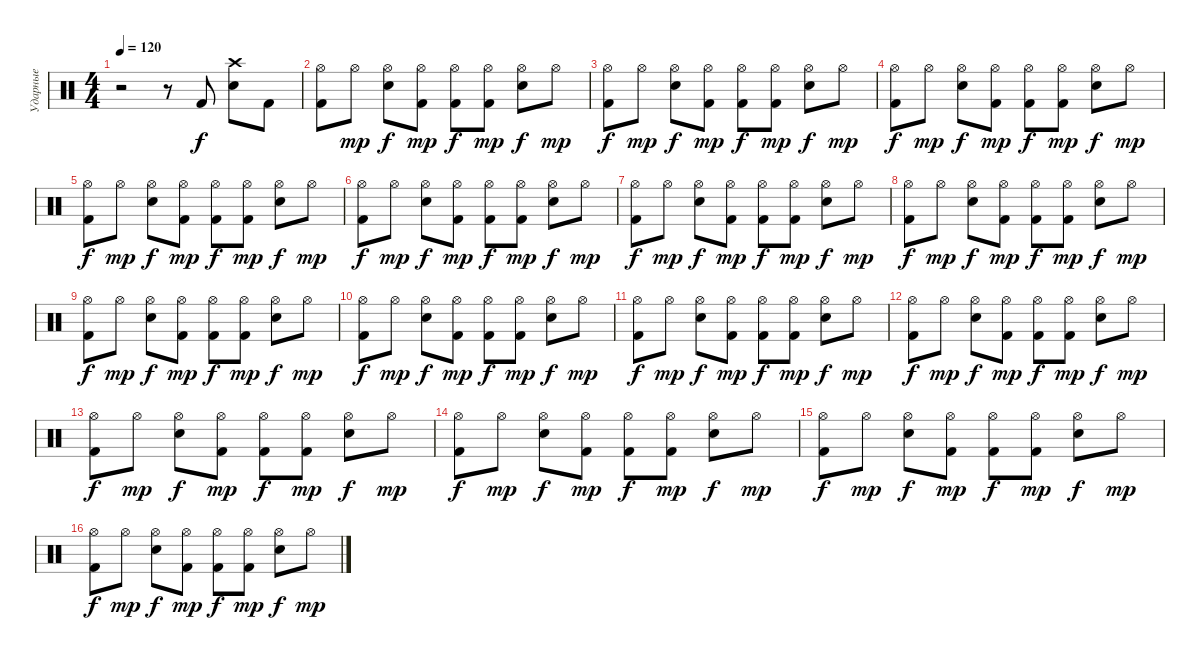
\track ("Ударные" "Ударные") {instrument percussion}
\staff {score}
\articulation defaults
\ts (4 4)
\tempo 120
\clef neutral
\ks c
r.2{dy f} r.8 "Kick (hit) 2".8 ("Crash high (hit)" "Snare (hit) 2").8 "Kick (hit) 2".8 |
("Hi-Hat (open)" "Kick (hit) 2").8 "Hi-Hat (open)".8{dy mp} ("Hi-Hat (open)" "Snare (hit) 2").8{dy f} ("Hi-Hat (open)" "Kick (hit) 2").8{dy mp} ("Hi-Hat (open)" "Kick (hit) 2").8{dy f} ("Hi-Hat (open)" "Kick (hit) 2").8{dy mp} ("Hi-Hat (open)" "Snare (hit) 2").8{dy f} "Hi-Hat (open)".8{dy mp} |
("Hi-Hat (open)" "Kick (hit) 2").8{dy f} "Hi-Hat (open)".8{dy mp} ("Hi-Hat (open)" "Snare (hit) 2").8{dy f} ("Hi-Hat (open)" "Kick (hit) 2").8{dy mp} ("Hi-Hat (open)" "Kick (hit) 2").8{dy f} ("Hi-Hat (open)" "Kick (hit) 2").8{dy mp} ("Hi-Hat (open)" "Snare (hit) 2").8{dy f} "Hi-Hat (open)".8{dy mp} |
("Hi-Hat (open)" "Kick (hit) 2").8{dy f} "Hi-Hat (open)".8{dy mp} ("Hi-Hat (open)" "Snare (hit) 2").8{dy f} ("Hi-Hat (open)" "Kick (hit) 2").8{dy mp} ("Hi-Hat (open)" "Kick (hit) 2").8{dy f} ("Hi-Hat (open)" "Kick (hit) 2").8{dy mp} ("Hi-Hat (open)" "Snare (hit) 2").8{dy f} "Hi-Hat (open)".8{dy mp} |
("Hi-Hat (open)" "Kick (hit) 2").8{dy f} "Hi-Hat (open)".8{dy mp} ("Hi-Hat (open)" "Snare (hit) 2").8{dy f} ("Hi-Hat (open)" "Kick (hit) 2").8{dy mp} ("Hi-Hat (open)" "Kick (hit) 2").8{dy f} ("Hi-Hat (open)" "Kick (hit) 2").8{dy mp} ("Hi-Hat (open)" "Snare (hit) 2").8{dy f} "Hi-Hat (open)".8{dy mp} |
("Hi-Hat (open)" "Kick (hit) 2").8{dy f} "Hi-Hat (open)".8{dy mp} ("Hi-Hat (open)" "Snare (hit) 2").8{dy f} ("Hi-Hat (open)" "Kick (hit) 2").8{dy mp} ("Hi-Hat (open)" "Kick (hit) 2").8{dy f} ("Hi-Hat (open)" "Kick (hit) 2").8{dy mp} ("Hi-Hat (open)" "Snare (hit) 2").8{dy f} "Hi-Hat (open)".8{dy mp} |
("Hi-Hat (open)" "Kick (hit) 2").8{dy f} "Hi-Hat (open)".8{dy mp} ("Hi-Hat (open)" "Snare (hit) 2").8{dy f} ("Hi-Hat (open)" "Kick (hit) 2").8{dy mp} ("Hi-Hat (open)" "Kick (hit) 2").8{dy f} ("Hi-Hat (open)" "Kick (hit) 2").8{dy mp} ("Hi-Hat (open)" "Snare (hit) 2").8{dy f} "Hi-Hat (open)".8{dy mp} |
("Hi-Hat (open)" "Kick (hit) 2").8{dy f} "Hi-Hat (open)".8{dy mp} ("Hi-Hat (open)" "Snare (hit) 2").8{dy f} ("Hi-Hat (open)" "Kick (hit) 2").8{dy mp} ("Hi-Hat (open)" "Kick (hit) 2").8{dy f} ("Hi-Hat (open)" "Kick (hit) 2").8{dy mp} ("Hi-Hat (open)" "Snare (hit) 2").8{dy f} "Hi-Hat (open)".8{dy mp} |
("Hi-Hat (open)" "Kick (hit) 2").8{dy f} "Hi-Hat (open)".8{dy mp} ("Hi-Hat (open)" "Snare (hit) 2").8{dy f} ("Hi-Hat (open)" "Kick (hit) 2").8{dy mp} ("Hi-Hat (open)" "Kick (hit) 2").8{dy f} ("Hi-Hat (open)" "Kick (hit) 2").8{dy mp} ("Hi-Hat (open)" "Snare (hit) 2").8{dy f} "Hi-Hat (open)".8{dy mp} |
("Hi-Hat (open)" "Kick (hit) 2").8{dy f} "Hi-Hat (open)".8{dy mp} ("Hi-Hat (open)" "Snare (hit) 2").8{dy f} ("Hi-Hat (open)" "Kick (hit) 2").8{dy mp} ("Hi-Hat (open)" "Kick (hit) 2").8{dy f} ("Hi-Hat (open)" "Kick (hit) 2").8{dy mp} ("Hi-Hat (open)" "Snare (hit) 2").8{dy f} "Hi-Hat (open)".8{dy mp} |
("Hi-Hat (open)" "Kick (hit) 2").8{dy f} "Hi-Hat (open)".8{dy mp} ("Hi-Hat (open)" "Snare (hit) 2").8{dy f} ("Hi-Hat (open)" "Kick (hit) 2").8{dy mp} ("Hi-Hat (open)" "Kick (hit) 2").8{dy f} ("Hi-Hat (open)" "Kick (hit) 2").8{dy mp} ("Hi-Hat (open)" "Snare (hit) 2").8{dy f} "Hi-Hat (open)".8{dy mp} |
("Hi-Hat (open)" "Kick (hit) 2").8{dy f} "Hi-Hat (open)".8{dy mp} ("Hi-Hat (open)" "Snare (hit) 2").8{dy f} ("Hi-Hat (open)" "Kick (hit) 2").8{dy mp} ("Hi-Hat (open)" "Kick (hit) 2").8{dy f} ("Hi-Hat (open)" "Kick (hit) 2").8{dy mp} ("Hi-Hat (open)" "Snare (hit) 2").8{dy f} "Hi-Hat (open)".8{dy mp} |
("Hi-Hat (open)" "Kick (hit) 2").8{dy f} "Hi-Hat (open)".8{dy mp} ("Hi-Hat (open)" "Snare (hit) 2").8{dy f} ("Hi-Hat (open)" "Kick (hit) 2").8{dy mp} ("Hi-Hat (open)" "Kick (hit) 2").8{dy f} ("Hi-Hat (open)" "Kick (hit) 2").8{dy mp} ("Hi-Hat (open)" "Snare (hit) 2").8{dy f} "Hi-Hat (open)".8{dy mp} |
("Hi-Hat (open)" "Kick (hit) 2").8{dy f} "Hi-Hat (open)".8{dy mp} ("Hi-Hat (open)" "Snare (hit) 2").8{dy f} ("Hi-Hat (open)" "Kick (hit) 2").8{dy mp} ("Hi-Hat (open)" "Kick (hit) 2").8{dy f} ("Hi-Hat (open)" "Kick (hit) 2").8{dy mp} ("Hi-Hat (open)" "Snare (hit) 2").8{dy f} "Hi-Hat (open)".8{dy mp} |
("Hi-Hat (open)" "Kick (hit) 2").8{dy f} "Hi-Hat (open)".8{dy mp} ("Hi-Hat (open)" "Snare (hit) 2").8{dy f} ("Hi-Hat (open)" "Kick (hit) 2").8{dy mp} ("Hi-Hat (open)" "Kick (hit) 2").8{dy f} ("Hi-Hat (open)" "Kick (hit) 2").8{dy mp} ("Hi-Hat (open)" "Snare (hit) 2").8{dy f} "Hi-Hat (open)".8{dy mp} |
("Hi-Hat (open)" "Kick (hit) 2").8{dy f} "Hi-Hat (open)".8{dy mp} ("Hi-Hat (open)" "Snare (hit) 2").8{dy f} ("Hi-Hat (open)" "Kick (hit) 2").8{dy mp} ("Hi-Hat (open)" "Kick (hit) 2").8{dy f} ("Hi-Hat (open)" "Kick (hit) 2").8{dy mp} ("Hi-Hat (open)" "Snare (hit) 2").8{dy f} "Hi-Hat (open)".8{dy mp}
